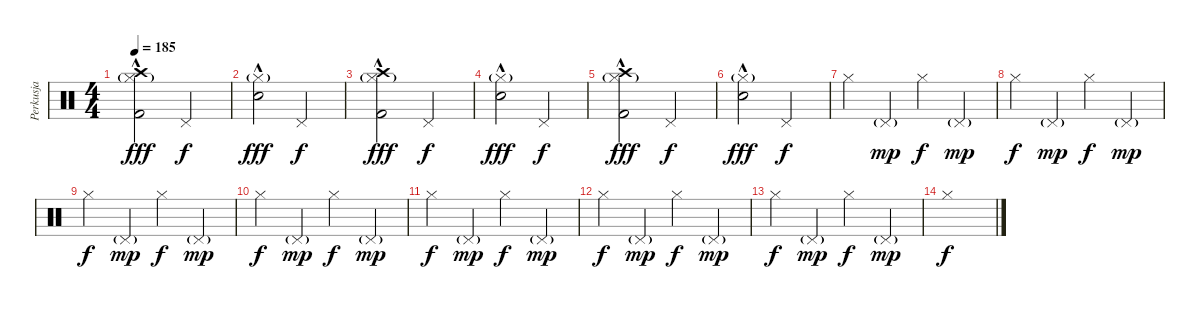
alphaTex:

\track ("Perkusja" "Perkusja") {instrument percussion}
\staff {score}
\articulation defaults
\ts (4 4)
\tempo 185
\clef neutral
\ks c
("Crash high (hit)" "Hi-Hat (closed)"{g} "Kick (hit) 2"{hac}).2{dy fff} "Pedal Hi-Hat (hit)".2{dy f} |
("Hi-Hat (closed)"{g} "Electric Snare (hit)"{hac}).2{dy fff} "Pedal Hi-Hat (hit)".2{dy f} |
("Crash high (hit)" "Hi-Hat (closed)"{g} "Kick (hit) 2"{hac}).2{dy fff} "Pedal Hi-Hat (hit)".2{dy f} |
("Hi-Hat (closed)"{g} "Electric Snare (hit)"{hac}).2{dy fff} "Pedal Hi-Hat (hit)".2{dy f} |
("Crash high (hit)" "Hi-Hat (closed)"{g} "Kick (hit) 2"{hac}).2{dy fff} "Pedal Hi-Hat (hit)".2{dy f} |
("Hi-Hat (closed)"{g} "Electric Snare (hit)"{hac}).2{dy fff} "Pedal Hi-Hat (hit)".2{dy f} |
"Hi-Hat (closed)".4 "Pedal Hi-Hat (hit)"{g}.4{dy mp} "Hi-Hat (closed)".4{dy f} "Pedal Hi-Hat (hit)"{g}.4{dy mp} |
"Hi-Hat (closed)".4{dy f} "Pedal Hi-Hat (hit)"{g}.4{dy mp} "Hi-Hat (closed)".4{dy f} "Pedal Hi-Hat (hit)"{g}.4{dy mp} |
"Hi-Hat (closed)".4{dy f} "Pedal Hi-Hat (hit)"{g}.4{dy mp} "Hi-Hat (closed)".4{dy f} "Pedal Hi-Hat (hit)"{g}.4{dy mp} |
"Hi-Hat (closed)".4{dy f} "Pedal Hi-Hat (hit)"{g}.4{dy mp} "Hi-Hat (closed)".4{dy f} "Pedal Hi-Hat (hit)"{g}.4{dy mp} |
"Hi-Hat (closed)".4{dy f} "Pedal Hi-Hat (hit)"{g}.4{dy mp} "Hi-Hat (closed)".4{dy f} "Pedal Hi-Hat (hit)"{g}.4{dy mp} |
"Hi-Hat (closed)".4{dy f} "Pedal Hi-Hat (hit)"{g}.4{dy mp} "Hi-Hat (closed)".4{dy f} "Pedal Hi-Hat (hit)"{g}.4{dy mp} |
"Hi-Hat (closed)".4{dy f} "Pedal Hi-Hat (hit)"{g}.4{dy mp} "Hi-Hat (closed)".4{dy f} "Pedal Hi-Hat (hit)"{g}.4{dy mp} |
"Hi-Hat (closed)".1{dy f}
